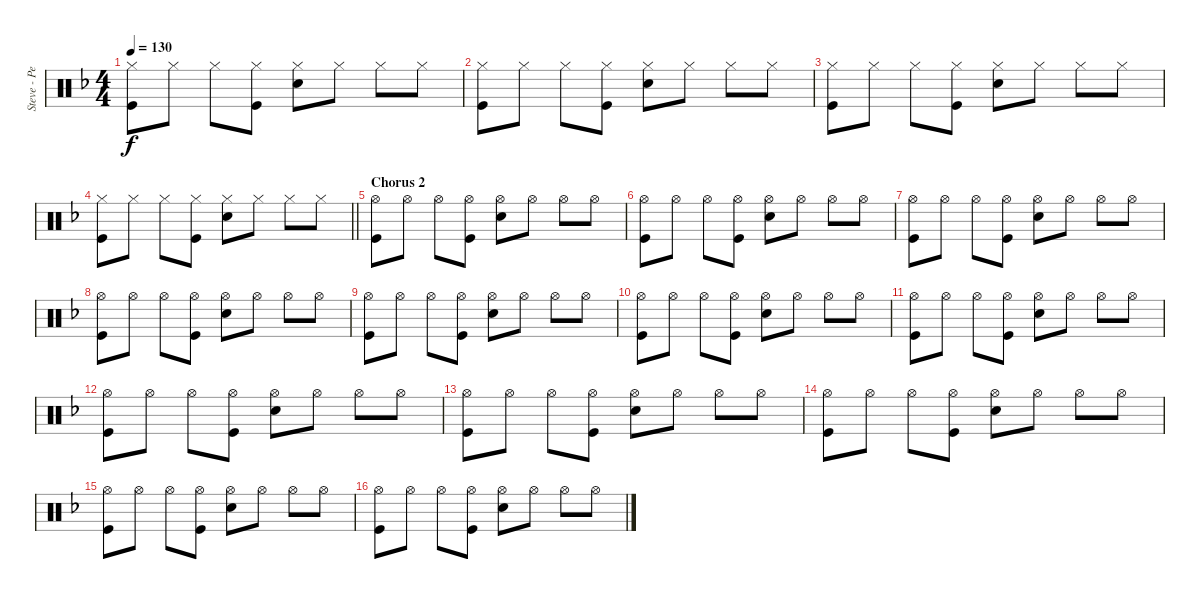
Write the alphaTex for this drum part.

\track ("Steve - Percussion" "Steve - Pe") {instrument percussion}
\staff {score}
\articulation defaults
\ts (4 4)
\tempo 130
\clef neutral
\ks f
("Kick (hit)" "Hi-Hat (closed)").8{dy f} "Hi-Hat (closed)".8 "Hi-Hat (closed)".8 ("Kick (hit)" "Hi-Hat (closed)").8 ("Snare (hit) 2" "Hi-Hat (closed)").8 "Hi-Hat (closed)".8 "Hi-Hat (closed)".8 "Hi-Hat (closed)".8 |
("Kick (hit)" "Hi-Hat (closed)").8 "Hi-Hat (closed)".8 "Hi-Hat (closed)".8 ("Kick (hit)" "Hi-Hat (closed)").8 ("Snare (hit) 2" "Hi-Hat (closed)").8 "Hi-Hat (closed)".8 "Hi-Hat (closed)".8 "Hi-Hat (closed)".8 |
("Kick (hit)" "Hi-Hat (closed)").8 "Hi-Hat (closed)".8 "Hi-Hat (closed)".8 ("Kick (hit)" "Hi-Hat (closed)").8 ("Snare (hit) 2" "Hi-Hat (closed)").8 "Hi-Hat (closed)".8 "Hi-Hat (closed)".8 "Hi-Hat (closed)".8 |
\barLineRight lightlight
("Kick (hit)" "Hi-Hat (closed)").8 "Hi-Hat (closed)".8 "Hi-Hat (closed)".8 ("Kick (hit)" "Hi-Hat (closed)").8 ("Snare (hit) 2" "Hi-Hat (closed)").8 "Hi-Hat (closed)".8 "Hi-Hat (closed)".8 "Hi-Hat (closed)".8 |
\section ("" "Chorus 2")
("Kick (hit)" "Hi-Hat (open)").8 "Hi-Hat (open)".8 "Hi-Hat (open)".8 ("Kick (hit)" "Hi-Hat (open)").8 ("Snare (hit) 2" "Hi-Hat (open)").8 "Hi-Hat (open)".8 "Hi-Hat (open)".8 "Hi-Hat (open)".8 |
("Kick (hit)" "Hi-Hat (open)").8 "Hi-Hat (open)".8 "Hi-Hat (open)".8 ("Kick (hit)" "Hi-Hat (open)").8 ("Snare (hit) 2" "Hi-Hat (open)").8 "Hi-Hat (open)".8 "Hi-Hat (open)".8 "Hi-Hat (open)".8 |
("Kick (hit)" "Hi-Hat (open)").8 "Hi-Hat (open)".8 "Hi-Hat (open)".8 ("Kick (hit)" "Hi-Hat (open)").8 ("Snare (hit) 2" "Hi-Hat (open)").8 "Hi-Hat (open)".8 "Hi-Hat (open)".8 "Hi-Hat (open)".8 |
("Kick (hit)" "Hi-Hat (open)").8 "Hi-Hat (open)".8 "Hi-Hat (open)".8 ("Kick (hit)" "Hi-Hat (open)").8 ("Snare (hit) 2" "Hi-Hat (open)").8 "Hi-Hat (open)".8 "Hi-Hat (open)".8 "Hi-Hat (open)".8 |
("Kick (hit)" "Hi-Hat (open)").8 "Hi-Hat (open)".8 "Hi-Hat (open)".8 ("Kick (hit)" "Hi-Hat (open)").8 ("Snare (hit) 2" "Hi-Hat (open)").8 "Hi-Hat (open)".8 "Hi-Hat (open)".8 "Hi-Hat (open)".8 |
("Kick (hit)" "Hi-Hat (open)").8 "Hi-Hat (open)".8 "Hi-Hat (open)".8 ("Kick (hit)" "Hi-Hat (open)").8 ("Snare (hit) 2" "Hi-Hat (open)").8 "Hi-Hat (open)".8 "Hi-Hat (open)".8 "Hi-Hat (open)".8 |
("Kick (hit)" "Hi-Hat (open)").8 "Hi-Hat (open)".8 "Hi-Hat (open)".8 ("Kick (hit)" "Hi-Hat (open)").8 ("Snare (hit) 2" "Hi-Hat (open)").8 "Hi-Hat (open)".8 "Hi-Hat (open)".8 "Hi-Hat (open)".8 |
("Kick (hit)" "Hi-Hat (open)").8 "Hi-Hat (open)".8 "Hi-Hat (open)".8 ("Kick (hit)" "Hi-Hat (open)").8 ("Snare (hit) 2" "Hi-Hat (open)").8 "Hi-Hat (open)".8 "Hi-Hat (open)".8 "Hi-Hat (open)".8 |
("Kick (hit)" "Hi-Hat (open)").8 "Hi-Hat (open)".8 "Hi-Hat (open)".8 ("Kick (hit)" "Hi-Hat (open)").8 ("Snare (hit) 2" "Hi-Hat (open)").8 "Hi-Hat (open)".8 "Hi-Hat (open)".8 "Hi-Hat (open)".8 |
("Kick (hit)" "Hi-Hat (open)").8 "Hi-Hat (open)".8 "Hi-Hat (open)".8 ("Kick (hit)" "Hi-Hat (open)").8 ("Snare (hit) 2" "Hi-Hat (open)").8 "Hi-Hat (open)".8 "Hi-Hat (open)".8 "Hi-Hat (open)".8 |
("Kick (hit)" "Hi-Hat (open)").8 "Hi-Hat (open)".8 "Hi-Hat (open)".8 ("Kick (hit)" "Hi-Hat (open)").8 ("Snare (hit) 2" "Hi-Hat (open)").8 "Hi-Hat (open)".8 "Hi-Hat (open)".8 "Hi-Hat (open)".8 |
("Kick (hit)" "Hi-Hat (open)").8 "Hi-Hat (open)".8 "Hi-Hat (open)".8 ("Kick (hit)" "Hi-Hat (open)").8 ("Snare (hit) 2" "Hi-Hat (open)").8 "Hi-Hat (open)".8 "Hi-Hat (open)".8 "Hi-Hat (open)".8
